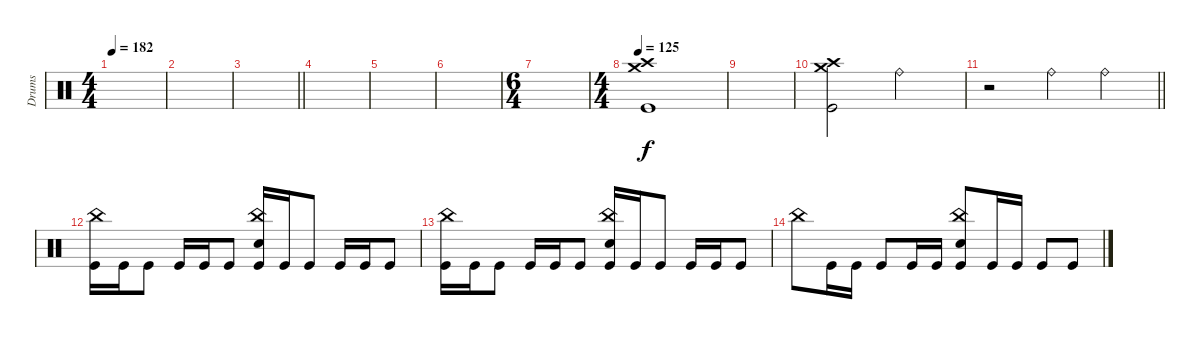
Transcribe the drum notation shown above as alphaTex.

\track ("Drums" "Drums") {instrument percussion}
\staff
\articulation defaults
\ts (4 4)
\tempo 182
\clef neutral
\ks c
|
|
\barLineRight lightlight
|
|
|
|
\ts (6 4)
|
\ts (4 4)
\tempo 125
("Crash high (hit)" "Crash medium (hit)" "Kick (hit)").1 |
|
("Crash high (hit)" "Crash medium (hit)" "Kick (hit)").2 "Ride (bell)".2 |
\barLineRight lightlight
r.2 "Ride (bell)".4 "Ride (bell)".4 |
\section ("" "")
("China (hit)" "Kick (hit)").16 "Kick (hit)".16 "Kick (hit)".8 "Kick (hit)".16 "Kick (hit)".16 "Kick (hit)".8 ("China (hit)" "Electric Snare (hit)" "Kick (hit)").16 "Kick (hit)".16 "Kick (hit)".8 "Kick (hit)".16 "Kick (hit)".16 "Kick (hit)".8 |
("China (hit)" "Kick (hit)").16 "Kick (hit)".16 "Kick (hit)".8 "Kick (hit)".16 "Kick (hit)".16 "Kick (hit)".8 ("China (hit)" "Electric Snare (hit)" "Kick (hit)").16 "Kick (hit)".16 "Kick (hit)".8 "Kick (hit)".16 "Kick (hit)".16 "Kick (hit)".8 |
"China (hit)".8 "Kick (hit)".16 "Kick (hit)".16 "Kick (hit)".8 "Kick (hit)".16 "Kick (hit)".16 ("China (hit)" "Electric Snare (hit)" "Kick (hit)").8 "Kick (hit)".16 "Kick (hit)".16 "Kick (hit)".8 "Kick (hit)".8
